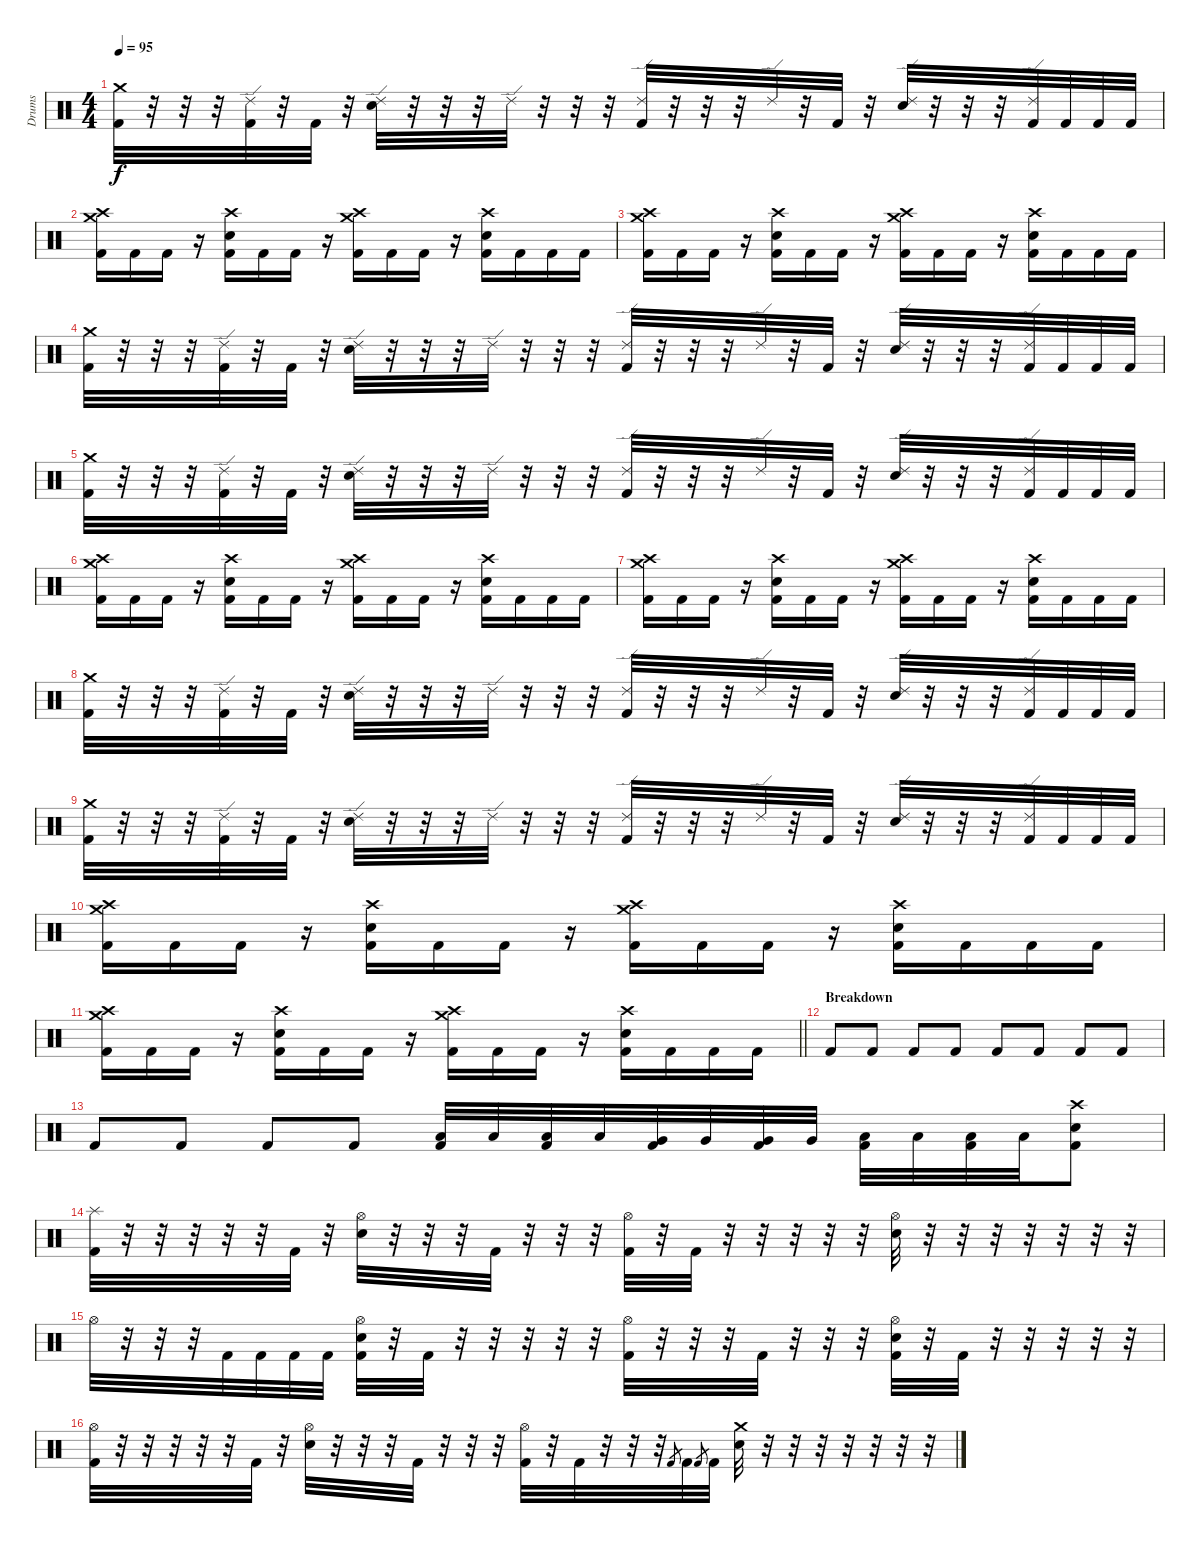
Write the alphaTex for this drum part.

\track ("Drums" "Drums") {instrument percussion}
\staff {score}
\articulation defaults
\ts (4 4)
\tempo 95
\clef neutral
\ks c
("Crash medium (hit)" "Kick (hit) 2").32{dy f} r.32 r.32 r.32 ("Ride (edge) 2" "Kick (hit) 2").32 r.32 "Kick (hit) 2".32 r.32 ("Ride (edge) 2" "Electric Snare (hit)").32 r.32 r.32 r.32 "Ride (edge) 2".32 r.32 r.32 r.32 ("Ride (edge) 2" "Kick (hit) 2").32 r.32 r.32 r.32 "Ride (edge) 2".32 r.32 "Kick (hit) 2".32 r.32 ("Ride (edge) 2" "Electric Snare (hit)").32 r.32 r.32 r.32 ("Ride (edge) 2" "Kick (hit) 2").32 "Kick (hit) 2".32 "Kick (hit) 2".32 "Kick (hit) 2".32 |
("Crash medium (hit)" "Crash high (hit)" "Kick (hit) 2").16 "Kick (hit) 2".16 "Kick (hit) 2".16 r.16 ("Crash high (hit)" "Electric Snare (hit)" "Kick (hit) 2").16 "Kick (hit) 2".16 "Kick (hit) 2".16 r.16 ("Crash medium (hit)" "Crash high (hit)" "Kick (hit) 2").16 "Kick (hit) 2".16 "Kick (hit) 2".16 r.16 ("Crash high (hit)" "Electric Snare (hit)" "Kick (hit) 2").16 "Kick (hit) 2".16 "Kick (hit) 2".16 "Kick (hit) 2".16 |
("Crash medium (hit)" "Crash high (hit)" "Kick (hit) 2").16 "Kick (hit) 2".16 "Kick (hit) 2".16 r.16 ("Crash high (hit)" "Electric Snare (hit)" "Kick (hit) 2").16 "Kick (hit) 2".16 "Kick (hit) 2".16 r.16 ("Crash medium (hit)" "Crash high (hit)" "Kick (hit) 2").16 "Kick (hit) 2".16 "Kick (hit) 2".16 r.16 ("Crash high (hit)" "Electric Snare (hit)" "Kick (hit) 2").16 "Kick (hit) 2".16 "Kick (hit) 2".16 "Kick (hit) 2".16 |
("Crash medium (hit)" "Kick (hit) 2").32 r.32 r.32 r.32 ("Ride (edge) 2" "Kick (hit) 2").32 r.32 "Kick (hit) 2".32 r.32 ("Ride (edge) 2" "Electric Snare (hit)").32 r.32 r.32 r.32 "Ride (edge) 2".32 r.32 r.32 r.32 ("Ride (edge) 2" "Kick (hit) 2").32 r.32 r.32 r.32 "Ride (edge) 2".32 r.32 "Kick (hit) 2".32 r.32 ("Ride (edge) 2" "Electric Snare (hit)").32 r.32 r.32 r.32 ("Ride (edge) 2" "Kick (hit) 2").32 "Kick (hit) 2".32 "Kick (hit) 2".32 "Kick (hit) 2".32 |
("Crash medium (hit)" "Kick (hit) 2").32 r.32 r.32 r.32 ("Ride (edge) 2" "Kick (hit) 2").32 r.32 "Kick (hit) 2".32 r.32 ("Ride (edge) 2" "Electric Snare (hit)").32 r.32 r.32 r.32 "Ride (edge) 2".32 r.32 r.32 r.32 ("Ride (edge) 2" "Kick (hit) 2").32 r.32 r.32 r.32 "Ride (edge) 2".32 r.32 "Kick (hit) 2".32 r.32 ("Ride (edge) 2" "Electric Snare (hit)").32 r.32 r.32 r.32 ("Ride (edge) 2" "Kick (hit) 2").32 "Kick (hit) 2".32 "Kick (hit) 2".32 "Kick (hit) 2".32 |
("Crash medium (hit)" "Crash high (hit)" "Kick (hit) 2").16 "Kick (hit) 2".16 "Kick (hit) 2".16 r.16 ("Crash high (hit)" "Electric Snare (hit)" "Kick (hit) 2").16 "Kick (hit) 2".16 "Kick (hit) 2".16 r.16 ("Crash medium (hit)" "Crash high (hit)" "Kick (hit) 2").16 "Kick (hit) 2".16 "Kick (hit) 2".16 r.16 ("Crash high (hit)" "Electric Snare (hit)" "Kick (hit) 2").16 "Kick (hit) 2".16 "Kick (hit) 2".16 "Kick (hit) 2".16 |
("Crash medium (hit)" "Crash high (hit)" "Kick (hit) 2").16 "Kick (hit) 2".16 "Kick (hit) 2".16 r.16 ("Crash high (hit)" "Electric Snare (hit)" "Kick (hit) 2").16 "Kick (hit) 2".16 "Kick (hit) 2".16 r.16 ("Crash medium (hit)" "Crash high (hit)" "Kick (hit) 2").16 "Kick (hit) 2".16 "Kick (hit) 2".16 r.16 ("Crash high (hit)" "Electric Snare (hit)" "Kick (hit) 2").16 "Kick (hit) 2".16 "Kick (hit) 2".16 "Kick (hit) 2".16 |
("Crash medium (hit)" "Kick (hit) 2").32 r.32 r.32 r.32 ("Ride (edge) 2" "Kick (hit) 2").32 r.32 "Kick (hit) 2".32 r.32 ("Ride (edge) 2" "Electric Snare (hit)").32 r.32 r.32 r.32 "Ride (edge) 2".32 r.32 r.32 r.32 ("Ride (edge) 2" "Kick (hit) 2").32 r.32 r.32 r.32 "Ride (edge) 2".32 r.32 "Kick (hit) 2".32 r.32 ("Ride (edge) 2" "Electric Snare (hit)").32 r.32 r.32 r.32 ("Ride (edge) 2" "Kick (hit) 2").32 "Kick (hit) 2".32 "Kick (hit) 2".32 "Kick (hit) 2".32 |
("Crash medium (hit)" "Kick (hit) 2").32 r.32 r.32 r.32 ("Ride (edge) 2" "Kick (hit) 2").32 r.32 "Kick (hit) 2".32 r.32 ("Ride (edge) 2" "Electric Snare (hit)").32 r.32 r.32 r.32 "Ride (edge) 2".32 r.32 r.32 r.32 ("Ride (edge) 2" "Kick (hit) 2").32 r.32 r.32 r.32 "Ride (edge) 2".32 r.32 "Kick (hit) 2".32 r.32 ("Ride (edge) 2" "Electric Snare (hit)").32 r.32 r.32 r.32 ("Ride (edge) 2" "Kick (hit) 2").32 "Kick (hit) 2".32 "Kick (hit) 2".32 "Kick (hit) 2".32 |
("Crash medium (hit)" "Crash high (hit)" "Kick (hit) 2").16 "Kick (hit) 2".16 "Kick (hit) 2".16 r.16 ("Crash high (hit)" "Electric Snare (hit)" "Kick (hit) 2").16 "Kick (hit) 2".16 "Kick (hit) 2".16 r.16 ("Crash medium (hit)" "Crash high (hit)" "Kick (hit) 2").16 "Kick (hit) 2".16 "Kick (hit) 2".16 r.16 ("Crash high (hit)" "Electric Snare (hit)" "Kick (hit) 2").16 "Kick (hit) 2".16 "Kick (hit) 2".16 "Kick (hit) 2".16 |
\barLineRight lightlight
("Crash medium (hit)" "Crash high (hit)" "Kick (hit) 2").16 "Kick (hit) 2".16 "Kick (hit) 2".16 r.16 ("Crash high (hit)" "Electric Snare (hit)" "Kick (hit) 2").16 "Kick (hit) 2".16 "Kick (hit) 2".16 r.16 ("Crash medium (hit)" "Crash high (hit)" "Kick (hit) 2").16 "Kick (hit) 2".16 "Kick (hit) 2".16 r.16 ("Crash high (hit)" "Electric Snare (hit)" "Kick (hit) 2").16 "Kick (hit) 2".16 "Kick (hit) 2".16 "Kick (hit) 2".16 |
\section ("" "Breakdown")
"Kick (hit) 2".8 "Kick (hit) 2".8 "Kick (hit) 2".8 "Kick (hit) 2".8 "Kick (hit) 2".8 "Kick (hit) 2".8 "Kick (hit) 2".8 "Kick (hit) 2".8 |
"Kick (hit) 2".8 "Kick (hit) 2".8 "Kick (hit) 2".8 "Kick (hit) 2".8 ("Low Tom (hit)" "Kick (hit) 2").32 "Low Tom (hit)".32 ("Low Tom (hit)" "Kick (hit) 2").32 "Low Tom (hit)".32 ("Very Low Tom (hit)" "Kick (hit) 2").32 "Very Low Tom (hit)".32 ("Very Low Tom (hit)" "Kick (hit) 2").32 "Very Low Tom (hit)".32 ("Low Floor Tom (hit)" "Kick (hit) 2").32 "Low Floor Tom (hit)".32 ("Low Floor Tom (hit)" "Kick (hit) 2").32 "Low Floor Tom (hit)".32 ("Crash high (hit)" "Electric Snare (hit)" "Kick (hit) 2").8 |
("Splash (hit)" "Kick (hit) 2").32 r.32 r.32 r.32 r.32 r.32 "Kick (hit) 2".32 r.32 ("Hi-Hat (open)" "Electric Snare (hit)").32 r.32 r.32 r.32 "Kick (hit) 2".32 r.32 r.32 r.32 ("Hi-Hat (open)" "Kick (hit) 2").32 r.32 "Kick (hit) 2".32 r.32 r.32 r.32 r.32 r.32 ("Hi-Hat (open)" "Electric Snare (hit)").32 r.32 r.32 r.32 r.32 r.32 r.32 r.32 |
"Hi-Hat (open)".32 r.32 r.32 r.32 "Kick (hit) 2".32 "Kick (hit) 2".32 "Kick (hit) 2".32 "Kick (hit) 2".32 ("Hi-Hat (open)" "Electric Snare (hit)" "Kick (hit) 2").32 r.32 "Kick (hit) 2".32 r.32 r.32 r.32 r.32 r.32 ("Hi-Hat (open)" "Kick (hit) 2").32 r.32 r.32 r.32 "Kick (hit) 2".32 r.32 r.32 r.32 ("Hi-Hat (open)" "Electric Snare (hit)" "Kick (hit) 2").32 r.32 "Kick (hit) 2".32 r.32 r.32 r.32 r.32 r.32 |
("Hi-Hat (open)" "Kick (hit) 2").32 r.32 r.32 r.32 r.32 r.32 "Kick (hit) 2".32 r.32 ("Hi-Hat (open)" "Electric Snare (hit)").32 r.32 r.32 r.32 "Kick (hit) 2".32 r.32 r.32 r.32 ("Hi-Hat (open)" "Kick (hit) 2").32 r.32 "Kick (hit) 2".32 r.32 r.32 r.32 "Kick (hit) 2".8{gr} "Kick (hit) 2".32 "Kick (hit) 2".8{gr} "Kick (hit) 2".32 ("Crash medium (hit)" "Electric Snare (hit)").32 r.32 r.32 r.32 r.32 r.32 r.32 r.32
